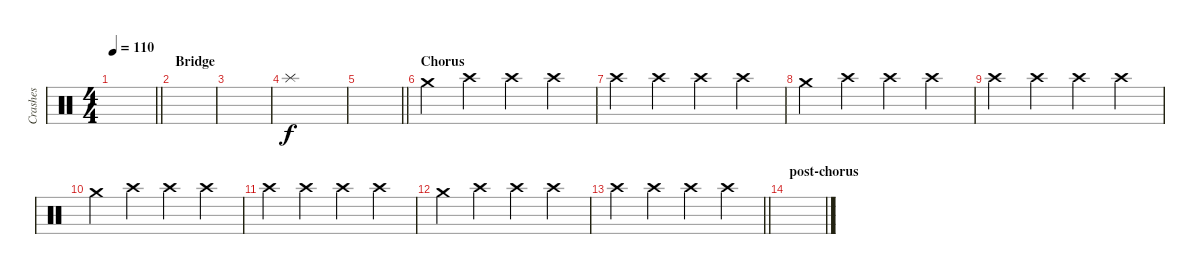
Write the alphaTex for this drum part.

\track ("Crashes" "Crashes") {instrument percussion}
\staff {score}
\articulation defaults
\ts (4 4)
\tempo 110
\clef neutral
\barLineRight lightlight
\ks c
|
\section ("" "Bridge")
|
|
"Splash (hit)".1 |
\barLineRight lightlight
|
\section ("" "Chorus")
"Crash medium (hit)".4 "Crash high (hit)".4 "Crash high (hit)".4 "Crash high (hit)".4 |
"Crash high (hit)".4 "Crash high (hit)".4 "Crash high (hit)".4 "Crash high (hit)".4 |
"Crash medium (hit)".4 "Crash high (hit)".4 "Crash high (hit)".4 "Crash high (hit)".4 |
"Crash high (hit)".4 "Crash high (hit)".4 "Crash high (hit)".4 "Crash high (hit)".4 |
"Crash medium (hit)".4 "Crash high (hit)".4 "Crash high (hit)".4 "Crash high (hit)".4 |
"Crash high (hit)".4 "Crash high (hit)".4 "Crash high (hit)".4 "Crash high (hit)".4 |
"Crash medium (hit)".4 "Crash high (hit)".4 "Crash high (hit)".4 "Crash high (hit)".4 |
\barLineRight lightlight "Crash high (hit)".4 "Crash high (hit)".4 "Crash high (hit)".4 "Crash high (hit)".4
|
\section ("" "post-chorus")
